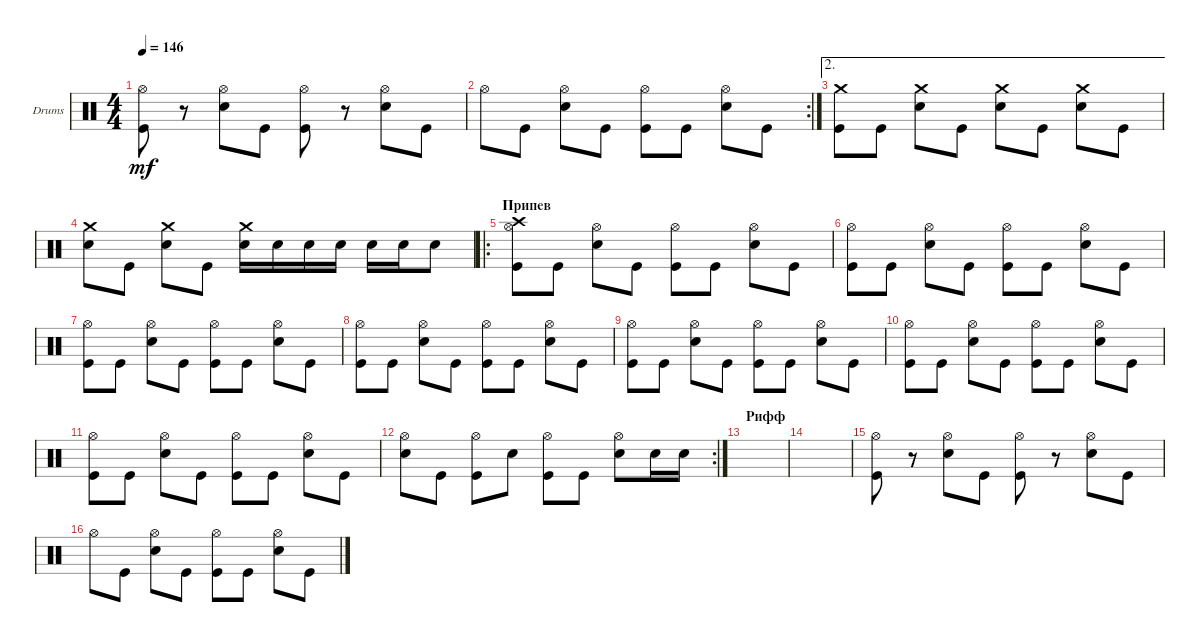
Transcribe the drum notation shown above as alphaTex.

\defaultSystemsLayout 4
\bracketExtendMode groupsimilarinstruments
\firstSystemTrackNameOrientation horizontal
\otherSystemsTrackNameOrientation horizontal
\track ("Drumkit" "Drums") {instrument percussion}
\staff {score}
\articulation defaults
\ts (4 4)
\tempo 146
\clef neutral
\ks c
("Kick (hit)" "Hi-Hat (open)").8{dy mf} r.8 ("Snare (hit) 2" "Hi-Hat (open)").8 "Kick (hit)".8 ("Kick (hit)" "Hi-Hat (open)").8 r.8 ("Snare (hit) 2" "Hi-Hat (open)").8 "Kick (hit)".8 |
\rc 2 "Hi-Hat (open)".8 "Kick (hit)".8
("Snare (hit) 2" "Hi-Hat (open)").8 "Kick (hit)".8 ("Hi-Hat (open)" "Kick (hit)").8 "Kick (hit)".8 ("Snare (hit) 2" "Hi-Hat (open)").8 "Kick (hit)".8 |
\ae 2
("Kick (hit)" "Crash medium (hit)").8 "Kick (hit)".8 ("Snare (hit) 2" "Crash medium (hit)").8 "Kick (hit)".8 ("Snare (hit) 2" "Crash medium (hit)").8 "Kick (hit)".8 ("Snare (hit) 2" "Crash medium (hit)").8 "Kick (hit)".8 |
("Snare (hit) 2" "Crash medium (hit)").8 "Kick (hit)".8 ("Snare (hit) 2" "Crash medium (hit)").8 "Kick (hit)".8 ("Crash medium (hit)" "Snare (hit) 2").16 "Snare (hit) 2".16 "Snare (hit) 2".16 "Snare (hit) 2".16 "Snare (hit) 2".16 "Snare (hit) 2".16 "Snare (hit) 2".8 |
\ro
\section ("" "Припев")
("Kick (hit)" "Crash high (hit)" "Hi-Hat (open)").8 "Kick (hit)".8 ("Snare (hit) 2" "Hi-Hat (open)").8 "Kick (hit)".8 ("Kick (hit)" "Hi-Hat (open)").8 "Kick (hit)".8 ("Snare (hit) 2" "Hi-Hat (open)").8 "Kick (hit)".8 |
("Kick (hit)" "Hi-Hat (open)").8 "Kick (hit)".8 ("Snare (hit) 2" "Hi-Hat (open)").8 "Kick (hit)".8 ("Kick (hit)" "Hi-Hat (open)").8 "Kick (hit)".8 ("Snare (hit) 2" "Hi-Hat (open)").8 "Kick (hit)".8 |
("Kick (hit)" "Hi-Hat (open)").8 "Kick (hit)".8 ("Snare (hit) 2" "Hi-Hat (open)").8 "Kick (hit)".8 ("Kick (hit)" "Hi-Hat (open)").8 "Kick (hit)".8 ("Snare (hit) 2" "Hi-Hat (open)").8 "Kick (hit)".8 |
("Kick (hit)" "Hi-Hat (open)").8 "Kick (hit)".8 ("Snare (hit) 2" "Hi-Hat (open)").8 "Kick (hit)".8 ("Kick (hit)" "Hi-Hat (open)").8 "Kick (hit)".8 ("Snare (hit) 2" "Hi-Hat (open)").8 "Kick (hit)".8 |
("Kick (hit)" "Hi-Hat (open)").8 "Kick (hit)".8 ("Snare (hit) 2" "Hi-Hat (open)").8 "Kick (hit)".8 ("Kick (hit)" "Hi-Hat (open)").8 "Kick (hit)".8 ("Snare (hit) 2" "Hi-Hat (open)").8 "Kick (hit)".8 |
("Kick (hit)" "Hi-Hat (open)").8 "Kick (hit)".8 ("Snare (hit) 2" "Hi-Hat (open)").8 "Kick (hit)".8 ("Kick (hit)" "Hi-Hat (open)").8 "Kick (hit)".8 ("Snare (hit) 2" "Hi-Hat (open)").8 "Kick (hit)".8 |
("Kick (hit)" "Hi-Hat (open)").8 "Kick (hit)".8 ("Snare (hit) 2" "Hi-Hat (open)").8 "Kick (hit)".8 ("Kick (hit)" "Hi-Hat (open)").8 "Kick (hit)".8 ("Snare (hit) 2" "Hi-Hat (open)").8 "Kick (hit)".8 |
\rc 2
("Snare (hit) 2" "Hi-Hat (open)").8 "Kick (hit)".8 ("Kick (hit)" "Hi-Hat (open)").8 "Snare (hit) 2".8 ("Kick (hit)" "Hi-Hat (open)").8 "Kick (hit)".8 ("Snare (hit) 2" "Hi-Hat (open)").8 "Snare (hit) 2".16 "Snare (hit) 2".16 |
\section ("" "Рифф")
|
|
("Kick (hit)" "Hi-Hat (open)").8 r.8 ("Snare (hit) 2" "Hi-Hat (open)").8 "Kick (hit)".8 ("Kick (hit)" "Hi-Hat (open)").8 r.8 ("Snare (hit) 2" "Hi-Hat (open)").8 "Kick (hit)".8 |
"Hi-Hat (open)".8 "Kick (hit)".8 ("Snare (hit) 2" "Hi-Hat (open)").8 "Kick (hit)".8 ("Hi-Hat (open)" "Kick (hit)").8 "Kick (hit)".8 ("Snare (hit) 2" "Hi-Hat (open)").8 "Kick (hit)".8
